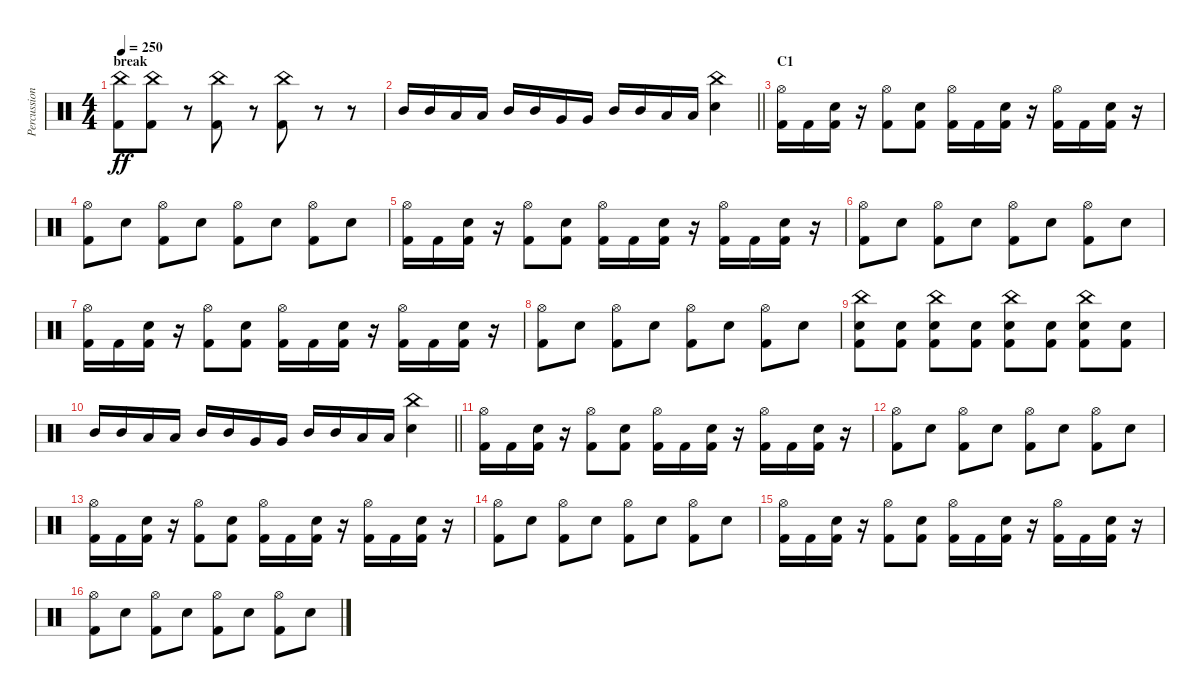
\track ("Percussions" "Percussion") {instrument percussion}
\staff {score}
\articulation defaults
\ts (4 4)
\section ("" "break")
\tempo 250
\clef neutral
\ks c
("China (hit)" "Kick (hit) 2").8{dy ff} ("China (hit)" "Kick (hit) 2").8 r.8 ("China (hit)" "Kick (hit) 2").8 r.8 ("China (hit)" "Kick (hit) 2").8 r.8 r.8 |
\barLineRight lightlight "Mid Tom (hit)".16 "Mid Tom (hit)".16 "Low Tom (hit)".16 "Low Tom (hit)".16 "Mid Tom (hit)".16 "Mid Tom (hit)".16 "Very Low Tom (hit)".16 "Very Low Tom (hit)".16 "Mid Tom (hit)".16 "Mid Tom (hit)".16 "Low Floor Tom (hit)".16 "Low Floor Tom (hit)".16
("China (hit)" "Electric Snare (hit)").4 |
\section ("" "C1")
("Hi-Hat (open)" "Kick (hit) 2").16 "Kick (hit) 2".16 ("Electric Snare (hit)" "Kick (hit) 2").16 r.16 ("Hi-Hat (open)" "Kick (hit) 2").8 ("Electric Snare (hit)" "Kick (hit) 2").8 ("Hi-Hat (open)" "Kick (hit) 2").16 "Kick (hit) 2".16 ("Electric Snare (hit)" "Kick (hit) 2").16 r.16 ("Hi-Hat (open)" "Kick (hit) 2").16 "Kick (hit) 2".16 ("Electric Snare (hit)" "Kick (hit) 2").16 r.16 |
("Hi-Hat (open)" "Kick (hit) 2").8 "Electric Snare (hit)".8 ("Hi-Hat (open)" "Kick (hit) 2").8 "Electric Snare (hit)".8 ("Hi-Hat (open)" "Kick (hit) 2").8 "Electric Snare (hit)".8 ("Hi-Hat (open)" "Kick (hit) 2").8 "Electric Snare (hit)".8 |
("Hi-Hat (open)" "Kick (hit) 2").16 "Kick (hit) 2".16 ("Electric Snare (hit)" "Kick (hit) 2").16 r.16 ("Hi-Hat (open)" "Kick (hit) 2").8 ("Electric Snare (hit)" "Kick (hit) 2").8 ("Hi-Hat (open)" "Kick (hit) 2").16 "Kick (hit) 2".16 ("Electric Snare (hit)" "Kick (hit) 2").16 r.16 ("Hi-Hat (open)" "Kick (hit) 2").16 "Kick (hit) 2".16 ("Electric Snare (hit)" "Kick (hit) 2").16 r.16 |
("Hi-Hat (open)" "Kick (hit) 2").8 "Electric Snare (hit)".8 ("Hi-Hat (open)" "Kick (hit) 2").8 "Electric Snare (hit)".8 ("Hi-Hat (open)" "Kick (hit) 2").8 "Electric Snare (hit)".8 ("Hi-Hat (open)" "Kick (hit) 2").8 "Electric Snare (hit)".8 |
("Hi-Hat (open)" "Kick (hit) 2").16 "Kick (hit) 2".16 ("Electric Snare (hit)" "Kick (hit) 2").16 r.16 ("Hi-Hat (open)" "Kick (hit) 2").8 ("Electric Snare (hit)" "Kick (hit) 2").8 ("Hi-Hat (open)" "Kick (hit) 2").16 "Kick (hit) 2".16 ("Electric Snare (hit)" "Kick (hit) 2").16 r.16 ("Hi-Hat (open)" "Kick (hit) 2").16 "Kick (hit) 2".16 ("Electric Snare (hit)" "Kick (hit) 2").16 r.16 |
("Hi-Hat (open)" "Kick (hit) 2").8 "Electric Snare (hit)".8 ("Hi-Hat (open)" "Kick (hit) 2").8 "Electric Snare (hit)".8 ("Hi-Hat (open)" "Kick (hit) 2").8 "Electric Snare (hit)".8 ("Hi-Hat (open)" "Kick (hit) 2").8 "Electric Snare (hit)".8 |
("China (hit)" "Electric Snare (hit)" "Kick (hit) 2").8 ("Electric Snare (hit)" "Kick (hit) 2").8 ("China (hit)" "Electric Snare (hit)" "Kick (hit) 2").8 ("Electric Snare (hit)" "Kick (hit) 2").8 ("China (hit)" "Electric Snare (hit)" "Kick (hit) 2").8 ("Electric Snare (hit)" "Kick (hit) 2").8 ("China (hit)" "Electric Snare (hit)" "Kick (hit) 2").8 ("Electric Snare (hit)" "Kick (hit) 2").8 |
\barLineRight lightlight "Mid Tom (hit)".16 "Mid Tom (hit)".16 "Low Tom (hit)".16 "Low Tom (hit)".16 "Mid Tom (hit)".16 "Mid Tom (hit)".16 "Very Low Tom (hit)".16 "Very Low Tom (hit)".16 "Mid Tom (hit)".16 "Mid Tom (hit)".16 "Low Floor Tom (hit)".16 "Low Floor Tom (hit)".16
("China (hit)" "Electric Snare (hit)").4 |
("Hi-Hat (open)" "Kick (hit) 2").16 "Kick (hit) 2".16 ("Electric Snare (hit)" "Kick (hit) 2").16 r.16 ("Hi-Hat (open)" "Kick (hit) 2").8 ("Electric Snare (hit)" "Kick (hit) 2").8 ("Hi-Hat (open)" "Kick (hit) 2").16 "Kick (hit) 2".16 ("Electric Snare (hit)" "Kick (hit) 2").16 r.16 ("Hi-Hat (open)" "Kick (hit) 2").16 "Kick (hit) 2".16 ("Electric Snare (hit)" "Kick (hit) 2").16 r.16 |
("Hi-Hat (open)" "Kick (hit) 2").8 "Electric Snare (hit)".8 ("Hi-Hat (open)" "Kick (hit) 2").8 "Electric Snare (hit)".8 ("Hi-Hat (open)" "Kick (hit) 2").8 "Electric Snare (hit)".8 ("Hi-Hat (open)" "Kick (hit) 2").8 "Electric Snare (hit)".8 |
("Hi-Hat (open)" "Kick (hit) 2").16 "Kick (hit) 2".16 ("Electric Snare (hit)" "Kick (hit) 2").16 r.16 ("Hi-Hat (open)" "Kick (hit) 2").8 ("Electric Snare (hit)" "Kick (hit) 2").8 ("Hi-Hat (open)" "Kick (hit) 2").16 "Kick (hit) 2".16 ("Electric Snare (hit)" "Kick (hit) 2").16 r.16 ("Hi-Hat (open)" "Kick (hit) 2").16 "Kick (hit) 2".16 ("Electric Snare (hit)" "Kick (hit) 2").16 r.16 |
("Hi-Hat (open)" "Kick (hit) 2").8 "Electric Snare (hit)".8 ("Hi-Hat (open)" "Kick (hit) 2").8 "Electric Snare (hit)".8 ("Hi-Hat (open)" "Kick (hit) 2").8 "Electric Snare (hit)".8 ("Hi-Hat (open)" "Kick (hit) 2").8 "Electric Snare (hit)".8 |
("Hi-Hat (open)" "Kick (hit) 2").16 "Kick (hit) 2".16 ("Electric Snare (hit)" "Kick (hit) 2").16 r.16 ("Hi-Hat (open)" "Kick (hit) 2").8 ("Electric Snare (hit)" "Kick (hit) 2").8 ("Hi-Hat (open)" "Kick (hit) 2").16 "Kick (hit) 2".16 ("Electric Snare (hit)" "Kick (hit) 2").16 r.16 ("Hi-Hat (open)" "Kick (hit) 2").16 "Kick (hit) 2".16 ("Electric Snare (hit)" "Kick (hit) 2").16 r.16 |
("Hi-Hat (open)" "Kick (hit) 2").8 "Electric Snare (hit)".8 ("Hi-Hat (open)" "Kick (hit) 2").8 "Electric Snare (hit)".8 ("Hi-Hat (open)" "Kick (hit) 2").8 "Electric Snare (hit)".8 ("Hi-Hat (open)" "Kick (hit) 2").8 "Electric Snare (hit)".8
